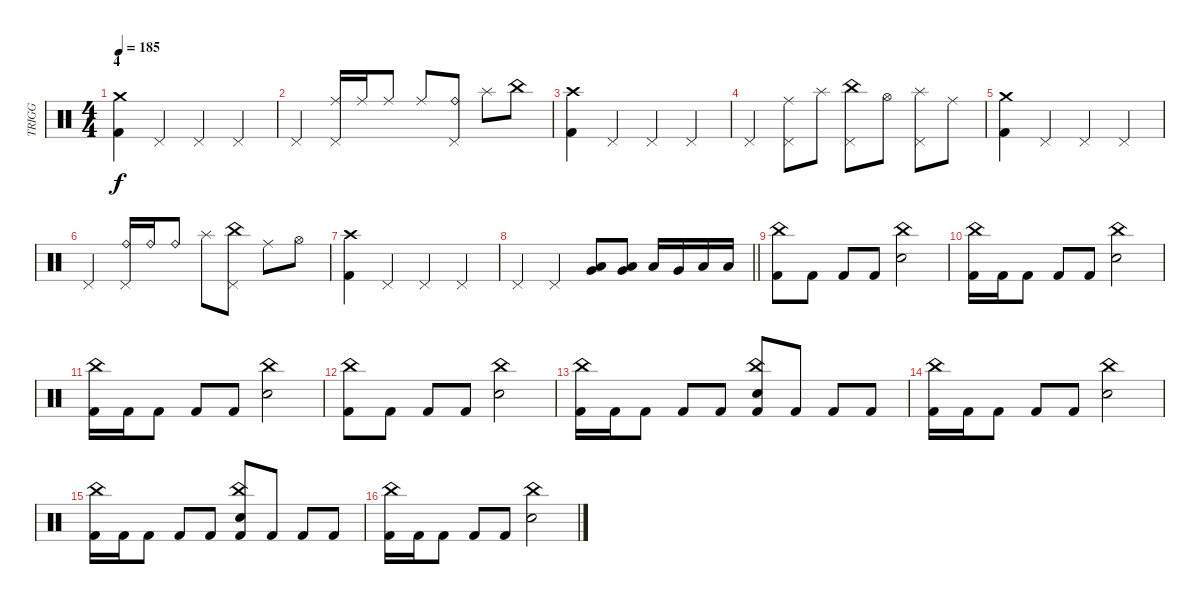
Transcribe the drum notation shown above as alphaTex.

\track ("TRIGG" "TRIGG") {instrument percussion}
\staff {score}
\articulation defaults
\ts (4 4)
\section ("" "4")
\tempo 185
\clef neutral
\ks c
("Crash medium (hit)" "Kick (hit) 2").4{dy f} "Pedal Hi-Hat (hit)".4 "Pedal Hi-Hat (hit)".4 "Pedal Hi-Hat (hit)".4 |
"Pedal Hi-Hat (hit)".4 ("Ride (middle)" "Pedal Hi-Hat (hit)").16 "Ride (middle)".16 "Ride (middle)".8 "Ride (middle)".8 ("Ride (bell)" "Pedal Hi-Hat (hit)").8 "Splash (hit)".8 "China (hit)".8 |
("Crash high (hit)" "Kick (hit) 2").4 "Pedal Hi-Hat (hit)".4 "Pedal Hi-Hat (hit)".4 "Pedal Hi-Hat (hit)".4 |
"Pedal Hi-Hat (hit)".4 ("Ride (middle)" "Pedal Hi-Hat (hit)").8 "Splash (hit)".8 ("China (hit)" "Pedal Hi-Hat (hit)").8 "Hi-Hat (open)".8 ("Splash (hit)" "Pedal Hi-Hat (hit)").8 "Ride (middle)".8 |
("Crash medium (hit)" "Kick (hit) 2").4 "Pedal Hi-Hat (hit)".4 "Pedal Hi-Hat (hit)".4 "Pedal Hi-Hat (hit)".4 |
"Pedal Hi-Hat (hit)".4 ("Ride (bell)" "Pedal Hi-Hat (hit)").16 "Ride (bell)".16 "Ride (bell)".8 "Splash (hit)".8 ("China (hit)" "Pedal Hi-Hat (hit)").8 "Ride (middle)".8 "Hi-Hat (open)".8 |
("Crash high (hit)" "Kick (hit) 2").4 "Pedal Hi-Hat (hit)".4 "Pedal Hi-Hat (hit)".4 "Pedal Hi-Hat (hit)".4 |
\barLineRight lightlight "Pedal Hi-Hat (hit)".4 "Pedal Hi-Hat (hit)".4
("Low Tom (hit)" "Very Low Tom (hit)").8 ("Low Tom (hit)" "Very Low Tom (hit)").8 "Low Tom (hit)".16 "Very Low Tom (hit)".16 "Low Floor Tom (hit)".16 "Low Floor Tom (hit)".16 |
("China (hit)" "Kick (hit) 2").8 "Kick (hit) 2".8 "Kick (hit) 2".8 "Kick (hit) 2".8 ("China (hit)" "Electric Snare (hit)").2 |
("China (hit)" "Kick (hit) 2").16 "Kick (hit) 2".16 "Kick (hit) 2".8 "Kick (hit) 2".8 "Kick (hit) 2".8 ("China (hit)" "Electric Snare (hit)").2 |
("China (hit)" "Kick (hit) 2").16 "Kick (hit) 2".16 "Kick (hit) 2".8 "Kick (hit) 2".8 "Kick (hit) 2".8 ("China (hit)" "Electric Snare (hit)").2 |
("China (hit)" "Kick (hit) 2").8 "Kick (hit) 2".8 "Kick (hit) 2".8 "Kick (hit) 2".8 ("China (hit)" "Electric Snare (hit)").2 |
("China (hit)" "Kick (hit) 2").16 "Kick (hit) 2".16 "Kick (hit) 2".8 "Kick (hit) 2".8 "Kick (hit) 2".8 ("China (hit)" "Electric Snare (hit)" "Kick (hit) 2").8 "Kick (hit) 2".8 "Kick (hit) 2".8 "Kick (hit) 2".8 |
("China (hit)" "Kick (hit) 2").16 "Kick (hit) 2".16 "Kick (hit) 2".8 "Kick (hit) 2".8 "Kick (hit) 2".8 ("China (hit)" "Electric Snare (hit)").2 |
("China (hit)" "Kick (hit) 2").16 "Kick (hit) 2".16 "Kick (hit) 2".8 "Kick (hit) 2".8 "Kick (hit) 2".8 ("China (hit)" "Electric Snare (hit)" "Kick (hit) 2").8 "Kick (hit) 2".8 "Kick (hit) 2".8 "Kick (hit) 2".8 |
("China (hit)" "Kick (hit) 2").16 "Kick (hit) 2".16 "Kick (hit) 2".8 "Kick (hit) 2".8 "Kick (hit) 2".8 ("China (hit)" "Electric Snare (hit)").2
